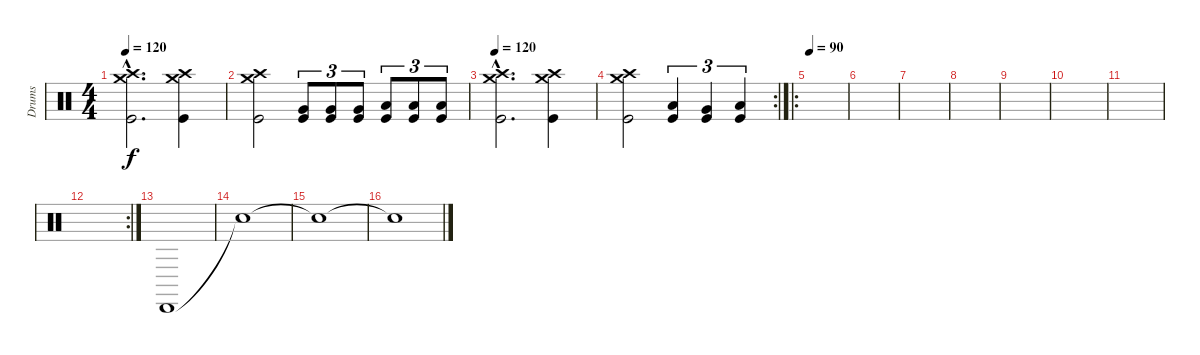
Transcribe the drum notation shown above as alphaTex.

\track ("Drums" "Drums") {instrument percussion}
\staff {score}
\articulation defaults
\ts (4 4)
\tempo 120
\clef neutral
\ks c
("Crash medium (hit)"{hac} "Crash high (hit)"{hac} "Kick (hit)"{hac}).2{d dy f} ("Crash medium (hit)" "Crash high (hit)" "Kick (hit)").4 |
("Crash medium (hit)" "Crash high (hit)" "Kick (hit)").2 ("Very Low Tom (hit)" "Kick (hit)").8{tu (3 2)} ("Very Low Tom (hit)" "Kick (hit)").8{tu (3 2)} ("Very Low Tom (hit)" "Kick (hit)").8{tu (3 2)} ("Low Floor Tom (hit)" "Kick (hit)").8{tu (3 2)} ("Low Floor Tom (hit)" "Kick (hit)").8{tu (3 2)} ("Low Floor Tom (hit)" "Kick (hit)").8{tu (3 2)} |
\tempo 120
("Crash high (hit)"{hac} "Crash medium (hit)"{hac} "Kick (hit)"{hac}).2{d} ("Crash medium (hit)" "Crash high (hit)" "Kick (hit)").4 |
\rc 2
("Crash high (hit)" "Crash medium (hit)" "Kick (hit)").2 ("Low Tom (hit)" "Kick (hit)").4{tu (3 2)} ("Very Low Tom (hit)" "Kick (hit)").4{tu (3 2)} ("Low Floor Tom (hit)" "Kick (hit)").4{tu (3 2)} |
\ro
\tempo 90
|
|
|
|
|
|
|
\rc 2
|
"Cabasa (hit)".1 |
"Snare (hit)"{t}.1 |
"Snare (hit)"{t}.1 |
"Snare (hit)"{t}.1
